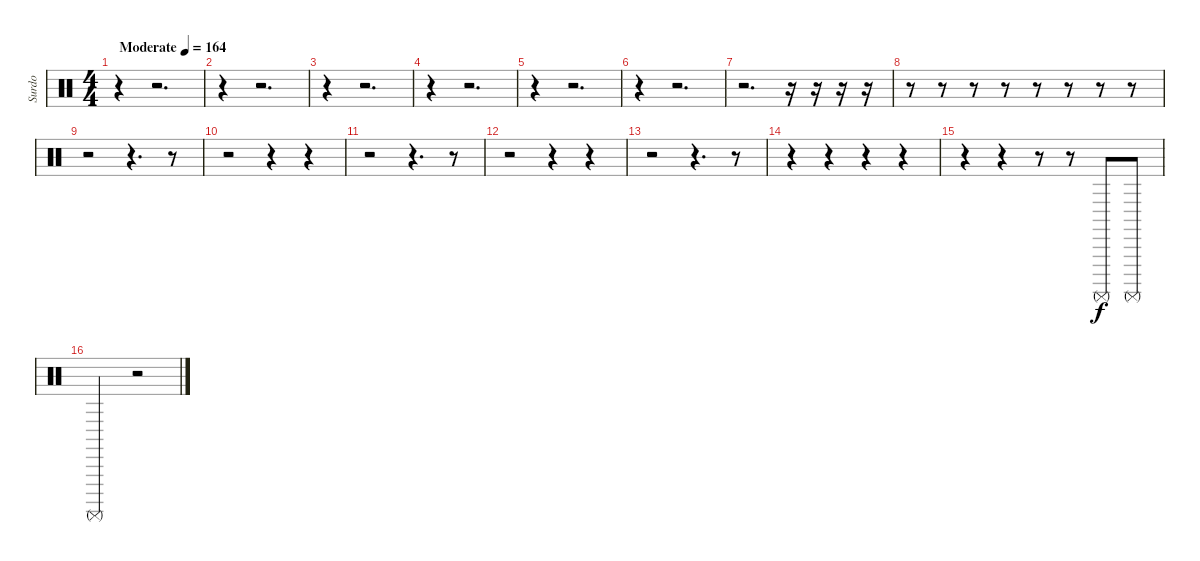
\track ("Surdo" "Surdo") {instrument percussion}
\staff {score}
\articulation defaults
\ts (4 4)
\tempo (164 "Moderate")
\clef neutral
\ks c
r.4{dy f} r.2{d} |
r.4 r.2{d} |
r.4 r.2{d} |
r.4 r.2{d} |
r.4 r.2{d} |
r.4 r.2{d} |
r.2{d} r.16 r.16 r.16 r.16 |
r.8 r.8 r.8 r.8 r.8 r.8 r.8 r.8 |
r.2 r.4{d} r.8 |
r.2 r.4 r.4 |
r.2 r.4{d} r.8 |
r.2 r.4 r.4 |
r.2 r.4{d} r.8 |
r.4 r.4 r.4 r.4 |
r.4 r.4 r.8 r.8 "Surdo (mute)".8 "Surdo (mute)".8 |
"Surdo (mute)".2 r.2
